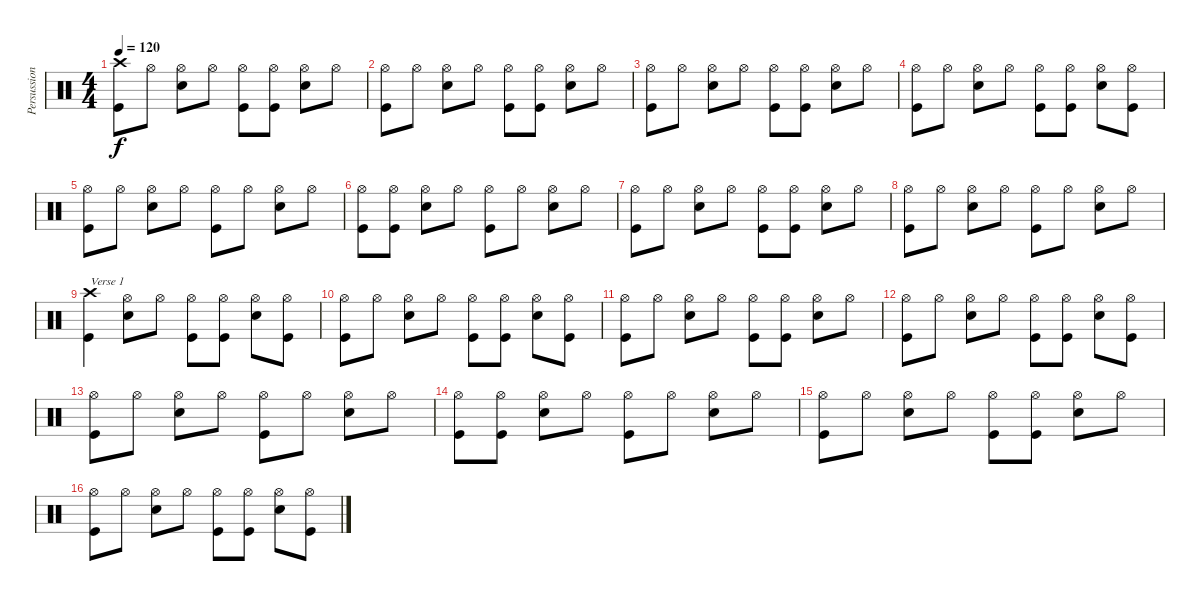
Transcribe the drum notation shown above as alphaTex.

\track ("Persussion" "Persussion") {instrument percussion}
\staff {score}
\articulation defaults
\ts (4 4)
\tempo 120
\clef neutral
\ks c
("Crash high (hit)" "Kick (hit)").8{dy f} "Hi-Hat (open)".8 ("Hi-Hat (open)" "Snare (hit) 2").8 "Hi-Hat (open)".8 ("Hi-Hat (open)" "Kick (hit)").8 ("Hi-Hat (open)" "Kick (hit)").8 ("Hi-Hat (open)" "Snare (hit) 2").8 "Hi-Hat (open)".8 |
("Hi-Hat (open)" "Kick (hit)").8 "Hi-Hat (open)".8 ("Hi-Hat (open)" "Snare (hit) 2").8 "Hi-Hat (open)".8 ("Hi-Hat (open)" "Kick (hit)").8 ("Hi-Hat (open)" "Kick (hit)").8 ("Hi-Hat (open)" "Snare (hit) 2").8 "Hi-Hat (open)".8 |
("Hi-Hat (open)" "Kick (hit)").8 "Hi-Hat (open)".8 ("Hi-Hat (open)" "Snare (hit) 2").8 "Hi-Hat (open)".8 ("Hi-Hat (open)" "Kick (hit)").8 ("Hi-Hat (open)" "Kick (hit)").8 ("Hi-Hat (open)" "Snare (hit) 2").8 "Hi-Hat (open)".8 |
("Hi-Hat (open)" "Kick (hit)").8 "Hi-Hat (open)".8 ("Hi-Hat (open)" "Snare (hit) 2").8 "Hi-Hat (open)".8 ("Hi-Hat (open)" "Kick (hit)").8 ("Hi-Hat (open)" "Kick (hit)").8 ("Hi-Hat (open)" "Snare (hit) 2").8 ("Hi-Hat (open)" "Kick (hit)").8 |
("Hi-Hat (open)" "Kick (hit)").8 "Hi-Hat (open)".8 ("Hi-Hat (open)" "Snare (hit) 2").8 "Hi-Hat (open)".8 ("Hi-Hat (open)" "Kick (hit)").8 "Hi-Hat (open)".8 ("Hi-Hat (open)" "Snare (hit) 2").8 "Hi-Hat (open)".8 |
("Hi-Hat (open)" "Kick (hit)").8 ("Hi-Hat (open)" "Kick (hit)").8 ("Hi-Hat (open)" "Snare (hit) 2").8 "Hi-Hat (open)".8 ("Hi-Hat (open)" "Kick (hit)").8 "Hi-Hat (open)".8 ("Hi-Hat (open)" "Snare (hit) 2").8 "Hi-Hat (open)".8 |
("Hi-Hat (open)" "Kick (hit)").8 "Hi-Hat (open)".8 ("Hi-Hat (open)" "Snare (hit) 2").8 "Hi-Hat (open)".8 ("Hi-Hat (open)" "Kick (hit)").8 ("Hi-Hat (open)" "Kick (hit)").8 ("Hi-Hat (open)" "Snare (hit) 2").8 "Hi-Hat (open)".8 |
("Hi-Hat (open)" "Kick (hit)").8 "Hi-Hat (open)".8 ("Hi-Hat (open)" "Snare (hit) 2").8 "Hi-Hat (open)".8 ("Hi-Hat (open)" "Kick (hit)").8 "Hi-Hat (open)".8 ("Hi-Hat (open)" "Snare (hit) 2").8 "Hi-Hat (open)".8 |
("Crash high (hit)" "Kick (hit)").4{txt "Verse 1"} ("Hi-Hat (open)" "Snare (hit) 2").8 "Hi-Hat (open)".8 ("Hi-Hat (open)" "Kick (hit)").8 ("Hi-Hat (open)" "Kick (hit)").8 ("Hi-Hat (open)" "Snare (hit) 2").8 ("Hi-Hat (open)" "Kick (hit)").8 |
("Hi-Hat (open)" "Kick (hit)").8 "Hi-Hat (open)".8 ("Hi-Hat (open)" "Snare (hit) 2").8 "Hi-Hat (open)".8 ("Hi-Hat (open)" "Kick (hit)").8 ("Hi-Hat (open)" "Kick (hit)").8 ("Hi-Hat (open)" "Snare (hit) 2").8 ("Hi-Hat (open)" "Kick (hit)").8 |
("Hi-Hat (open)" "Kick (hit)").8 "Hi-Hat (open)".8 ("Hi-Hat (open)" "Snare (hit) 2").8 "Hi-Hat (open)".8 ("Hi-Hat (open)" "Kick (hit)").8 ("Hi-Hat (open)" "Kick (hit)").8 ("Hi-Hat (open)" "Snare (hit) 2").8 "Hi-Hat (open)".8 |
("Hi-Hat (open)" "Kick (hit)").8 "Hi-Hat (open)".8 ("Hi-Hat (open)" "Snare (hit) 2").8 "Hi-Hat (open)".8 ("Hi-Hat (open)" "Kick (hit)").8 ("Hi-Hat (open)" "Kick (hit)").8 ("Hi-Hat (open)" "Snare (hit) 2").8 ("Hi-Hat (open)" "Kick (hit)").8 |
("Hi-Hat (open)" "Kick (hit)").8 "Hi-Hat (open)".8 ("Hi-Hat (open)" "Snare (hit) 2").8 "Hi-Hat (open)".8 ("Hi-Hat (open)" "Kick (hit)").8 "Hi-Hat (open)".8 ("Hi-Hat (open)" "Snare (hit) 2").8 "Hi-Hat (open)".8 |
("Hi-Hat (open)" "Kick (hit)").8 ("Hi-Hat (open)" "Kick (hit)").8 ("Hi-Hat (open)" "Snare (hit) 2").8 "Hi-Hat (open)".8 ("Hi-Hat (open)" "Kick (hit)").8 "Hi-Hat (open)".8 ("Hi-Hat (open)" "Snare (hit) 2").8 "Hi-Hat (open)".8 |
("Hi-Hat (open)" "Kick (hit)").8 "Hi-Hat (open)".8 ("Hi-Hat (open)" "Snare (hit) 2").8 "Hi-Hat (open)".8 ("Hi-Hat (open)" "Kick (hit)").8 ("Hi-Hat (open)" "Kick (hit)").8 ("Hi-Hat (open)" "Snare (hit) 2").8 "Hi-Hat (open)".8 |
("Hi-Hat (open)" "Kick (hit)").8 "Hi-Hat (open)".8 ("Hi-Hat (open)" "Snare (hit) 2").8 "Hi-Hat (open)".8 ("Hi-Hat (open)" "Kick (hit)").8 ("Hi-Hat (open)" "Kick (hit)").8 ("Hi-Hat (open)" "Snare (hit) 2").8 ("Hi-Hat (open)" "Kick (hit)").8
